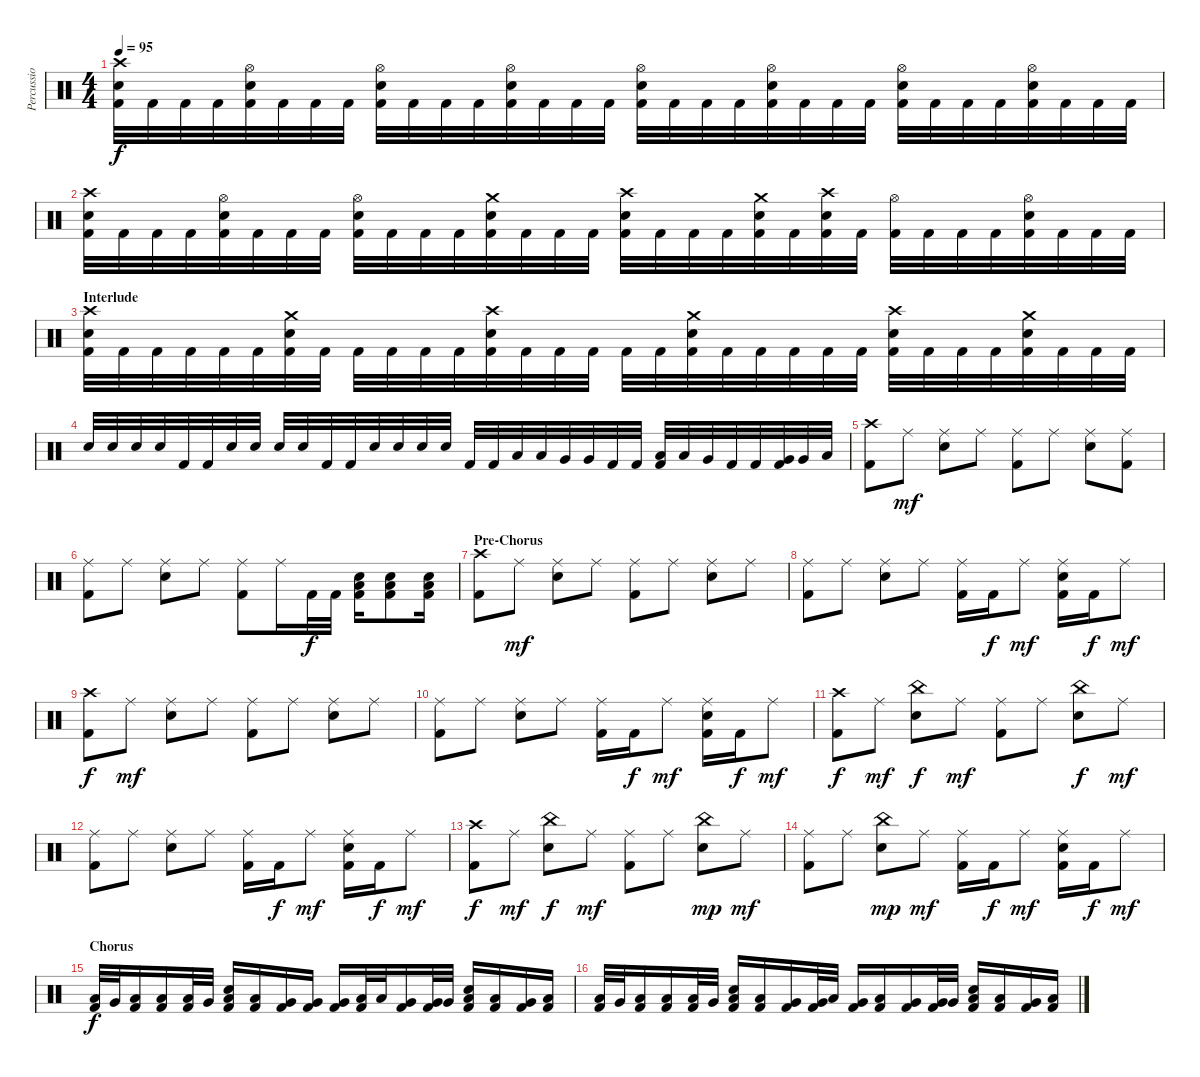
\track (" Percussions" " Percussio") {instrument percussion}
\staff {score}
\articulation defaults
\ts (4 4)
\tempo 95
\clef neutral
\ks c
("Crash high (hit)" "Electric Snare (hit)" "Kick (hit) 2").32{dy f} "Kick (hit) 2".32 "Kick (hit) 2".32 "Kick (hit) 2".32 ("Hi-Hat (open)" "Electric Snare (hit)" "Kick (hit) 2").32 "Kick (hit) 2".32 "Kick (hit) 2".32 "Kick (hit) 2".32 ("Hi-Hat (open)" "Electric Snare (hit)" "Kick (hit) 2").32 "Kick (hit) 2".32 "Kick (hit) 2".32 "Kick (hit) 2".32 ("Hi-Hat (open)" "Electric Snare (hit)" "Kick (hit) 2").32 "Kick (hit) 2".32 "Kick (hit) 2".32 "Kick (hit) 2".32 ("Hi-Hat (open)" "Electric Snare (hit)" "Kick (hit) 2").32 "Kick (hit) 2".32 "Kick (hit) 2".32 "Kick (hit) 2".32 ("Hi-Hat (open)" "Electric Snare (hit)" "Kick (hit) 2").32 "Kick (hit) 2".32 "Kick (hit) 2".32 "Kick (hit) 2".32 ("Hi-Hat (open)" "Electric Snare (hit)" "Kick (hit) 2").32 "Kick (hit) 2".32 "Kick (hit) 2".32 "Kick (hit) 2".32 ("Hi-Hat (open)" "Electric Snare (hit)" "Kick (hit) 2").32 "Kick (hit) 2".32 "Kick (hit) 2".32 "Kick (hit) 2".32 |
("Crash high (hit)" "Electric Snare (hit)" "Kick (hit) 2").32 "Kick (hit) 2".32 "Kick (hit) 2".32 "Kick (hit) 2".32 ("Hi-Hat (open)" "Electric Snare (hit)" "Kick (hit) 2").32 "Kick (hit) 2".32 "Kick (hit) 2".32 "Kick (hit) 2".32 ("Hi-Hat (open)" "Electric Snare (hit)" "Kick (hit) 2").32 "Kick (hit) 2".32 "Kick (hit) 2".32 "Kick (hit) 2".32 ("Crash medium (hit)" "Electric Snare (hit)" "Kick (hit) 2").32 "Kick (hit) 2".32 "Kick (hit) 2".32 "Kick (hit) 2".32 ("Crash high (hit)" "Electric Snare (hit)" "Kick (hit) 2").32 "Kick (hit) 2".32 "Kick (hit) 2".32 "Kick (hit) 2".32 ("Crash medium (hit)" "Electric Snare (hit)" "Kick (hit) 2").32 "Kick (hit) 2".32 ("Crash high (hit)" "Electric Snare (hit)" "Kick (hit) 2").32 "Kick (hit) 2".32 ("Hi-Hat (open)" "Kick (hit) 2").32 "Kick (hit) 2".32 "Kick (hit) 2".32 "Kick (hit) 2".32 ("Hi-Hat (open)" "Electric Snare (hit)" "Kick (hit) 2").32 "Kick (hit) 2".32 "Kick (hit) 2".32 "Kick (hit) 2".32 |
\section ("" "Interlude")
("Crash high (hit)" "Electric Snare (hit)" "Kick (hit) 2").32 "Kick (hit) 2".32 "Kick (hit) 2".32 "Kick (hit) 2".32 "Kick (hit) 2".32 "Kick (hit) 2".32 ("Crash medium (hit)" "Electric Snare (hit)" "Kick (hit) 2").32 "Kick (hit) 2".32 "Kick (hit) 2".32 "Kick (hit) 2".32 "Kick (hit) 2".32 "Kick (hit) 2".32 ("Crash high (hit)" "Electric Snare (hit)" "Kick (hit) 2").32 "Kick (hit) 2".32 "Kick (hit) 2".32 "Kick (hit) 2".32 "Kick (hit) 2".32 "Kick (hit) 2".32 ("Crash medium (hit)" "Electric Snare (hit)" "Kick (hit) 2").32 "Kick (hit) 2".32 "Kick (hit) 2".32 "Kick (hit) 2".32 "Kick (hit) 2".32 "Kick (hit) 2".32 ("Crash high (hit)" "Electric Snare (hit)" "Kick (hit) 2").32 "Kick (hit) 2".32 "Kick (hit) 2".32 "Kick (hit) 2".32 ("Crash medium (hit)" "Electric Snare (hit)" "Kick (hit) 2").32 "Kick (hit) 2".32 "Kick (hit) 2".32 "Kick (hit) 2".32 |
"Electric Snare (hit)".32 "Electric Snare (hit)".32 "Electric Snare (hit)".32 "Electric Snare (hit)".32 "Kick (hit) 2".32 "Kick (hit) 2".32 "Electric Snare (hit)".32 "Electric Snare (hit)".32 "Electric Snare (hit)".32 "Electric Snare (hit)".32 "Kick (hit) 2".32 "Kick (hit) 2".32 "Electric Snare (hit)".32 "Electric Snare (hit)".32 "Electric Snare (hit)".32 "Electric Snare (hit)".32 "Kick (hit) 2".32 "Kick (hit) 2".32 "Low Tom (hit)".32 "Low Tom (hit)".32 "Very Low Tom (hit)".32 "Very Low Tom (hit)".32 "Kick (hit) 2".32 "Kick (hit) 2".32 ("Low Tom (hit)" "Kick (hit) 2").32 "Low Tom (hit)".32 "Very Low Tom (hit)".32 "Kick (hit) 2".32 "Kick (hit) 2".32 ("Very Low Tom (hit)" "Kick (hit) 2").32 "Very Low Tom (hit)".32 "Low Floor Tom (hit)".32 |
("Crash high (hit)" "Kick (hit) 2").8 "Ride (middle)".8{dy mf} ("Ride (middle)" "Electric Snare (hit)").8 "Ride (middle)".8 ("Ride (middle)" "Kick (hit) 2").8 "Ride (middle)".8 ("Ride (middle)" "Electric Snare (hit)").8 ("Ride (middle)" "Kick (hit) 2").8 |
("Ride (middle)" "Kick (hit) 2").8 "Ride (middle)".8 ("Ride (middle)" "Electric Snare (hit)").8 "Ride (middle)".8 ("Ride (middle)" "Kick (hit) 2").8 "Ride (middle)".16 "Kick (hit) 2".32{dy f} "Kick (hit) 2".32 ("Low Floor Tom (hit)" "Electric Snare (hit)" "Kick (hit) 2").16 ("Low Floor Tom (hit)" "Electric Snare (hit)" "Kick (hit) 2").8 ("Low Floor Tom (hit)" "Electric Snare (hit)" "Kick (hit) 2").16 |
\section ("" "Pre-Chorus")
("Crash high (hit)" "Kick (hit) 2").8 "Ride (middle)".8{dy mf} ("Ride (middle)" "Electric Snare (hit)").8 "Ride (middle)".8 ("Ride (middle)" "Kick (hit) 2").8 "Ride (middle)".8 ("Ride (middle)" "Electric Snare (hit)").8 "Ride (middle)".8 |
("Ride (middle)" "Kick (hit) 2").8 "Ride (middle)".8 ("Ride (middle)" "Electric Snare (hit)").8 "Ride (middle)".8 ("Ride (middle)" "Kick (hit) 2").16 "Kick (hit) 2".16{dy f} "Ride (middle)".8{dy mf} ("Ride (middle)" "Electric Snare (hit)" "Kick (hit) 2").16 "Kick (hit) 2".16{dy f} "Ride (middle)".8{dy mf} |
("Crash high (hit)" "Kick (hit) 2").8{dy f} "Ride (middle)".8{dy mf} ("Ride (middle)" "Electric Snare (hit)").8 "Ride (middle)".8 ("Ride (middle)" "Kick (hit) 2").8 "Ride (middle)".8 ("Ride (middle)" "Electric Snare (hit)").8 "Ride (middle)".8 |
("Ride (middle)" "Kick (hit) 2").8 "Ride (middle)".8 ("Ride (middle)" "Electric Snare (hit)").8 "Ride (middle)".8 ("Ride (middle)" "Kick (hit) 2").16 "Kick (hit) 2".16{dy f} "Ride (middle)".8{dy mf} ("Ride (middle)" "Electric Snare (hit)" "Kick (hit) 2").16 "Kick (hit) 2".16{dy f} "Ride (middle)".8{dy mf} |
("Crash high (hit)" "Kick (hit) 2").8{dy f} "Ride (middle)".8{dy mf} ("China (hit)" "Electric Snare (hit)").8{dy f} "Ride (middle)".8{dy mf} ("Ride (middle)" "Kick (hit) 2").8 "Ride (middle)".8 ("China (hit)" "Electric Snare (hit)").8{dy f} "Ride (middle)".8{dy mf} |
("Ride (middle)" "Kick (hit) 2").8 "Ride (middle)".8 ("Ride (middle)" "Electric Snare (hit)").8 "Ride (middle)".8 ("Ride (middle)" "Kick (hit) 2").16 "Kick (hit) 2".16{dy f} "Ride (middle)".8{dy mf} ("Ride (middle)" "Electric Snare (hit)" "Kick (hit) 2").16 "Kick (hit) 2".16{dy f} "Ride (middle)".8{dy mf} |
("Crash high (hit)" "Kick (hit) 2").8{dy f} "Ride (middle)".8{dy mf} ("China (hit)" "Electric Snare (hit)").8{dy f} "Ride (middle)".8{dy mf} ("Ride (middle)" "Kick (hit) 2").8 "Ride (middle)".8 ("China (hit)" "Electric Snare (hit)").8{dy mp} "Ride (middle)".8{dy mf} |
("Ride (middle)" "Kick (hit) 2").8 "Ride (middle)".8 ("China (hit)" "Electric Snare (hit)").8{dy mp} "Ride (middle)".8{dy mf} ("Ride (middle)" "Kick (hit) 2").16 "Kick (hit) 2".16{dy f} "Ride (middle)".8{dy mf} ("Ride (middle)" "Electric Snare (hit)" "Kick (hit) 2").16 "Kick (hit) 2".16{dy f} "Ride (middle)".8{dy mf} |
\section ("" "Chorus")
("Low Tom (hit)" "Kick (hit) 2").32{dy f} "Very Low Tom (hit)".32 ("Low Floor Tom (hit)" "Kick (hit) 2").16 ("Low Floor Tom (hit)" "Kick (hit) 2").16 ("Low Tom (hit)" "Kick (hit) 2").32 "Very Low Tom (hit)".32 ("Low Floor Tom (hit)" "Electric Snare (hit)" "Kick (hit) 2").16 ("Low Tom (hit)" "Kick (hit) 2").16 ("Very Low Tom (hit)" "Kick (hit) 2").16 ("Very Low Tom (hit)" "Kick (hit) 2").16 ("Very Low Tom (hit)" "Kick (hit) 2").16 ("Low Floor Tom (hit)" "Kick (hit) 2").32 "Low Floor Tom (hit)".32 ("Very Low Tom (hit)" "Kick (hit) 2").16 ("Very Low Tom (hit)" "Kick (hit) 2").32 "Very Low Tom (hit)".32 ("Low Floor Tom (hit)" "Electric Snare (hit)" "Kick (hit) 2").16 ("Low Floor Tom (hit)" "Kick (hit) 2").16 ("Very Low Tom (hit)" "Kick (hit) 2").16 ("Low Floor Tom (hit)" "Kick (hit) 2").16 |
("Low Tom (hit)" "Kick (hit) 2").32 "Very Low Tom (hit)".32 ("Low Floor Tom (hit)" "Kick (hit) 2").16 ("Low Floor Tom (hit)" "Kick (hit) 2").16 ("Low Tom (hit)" "Kick (hit) 2").32 "Very Low Tom (hit)".32 ("Low Floor Tom (hit)" "Electric Snare (hit)" "Kick (hit) 2").16 ("Low Tom (hit)" "Kick (hit) 2").16 ("Very Low Tom (hit)" "Kick (hit) 2").16 ("Very Low Tom (hit)" "Kick (hit) 2").32 "Low Floor Tom (hit)".32 ("Very Low Tom (hit)" "Kick (hit) 2").16 ("Low Floor Tom (hit)" "Kick (hit) 2").16 ("Very Low Tom (hit)" "Kick (hit) 2").16 ("Very Low Tom (hit)" "Kick (hit) 2").32 "Very Low Tom (hit)".32 ("Low Floor Tom (hit)" "Electric Snare (hit)" "Kick (hit) 2").16 ("Low Floor Tom (hit)" "Kick (hit) 2").16 ("Very Low Tom (hit)" "Kick (hit) 2").16 ("Low Floor Tom (hit)" "Kick (hit) 2").16
